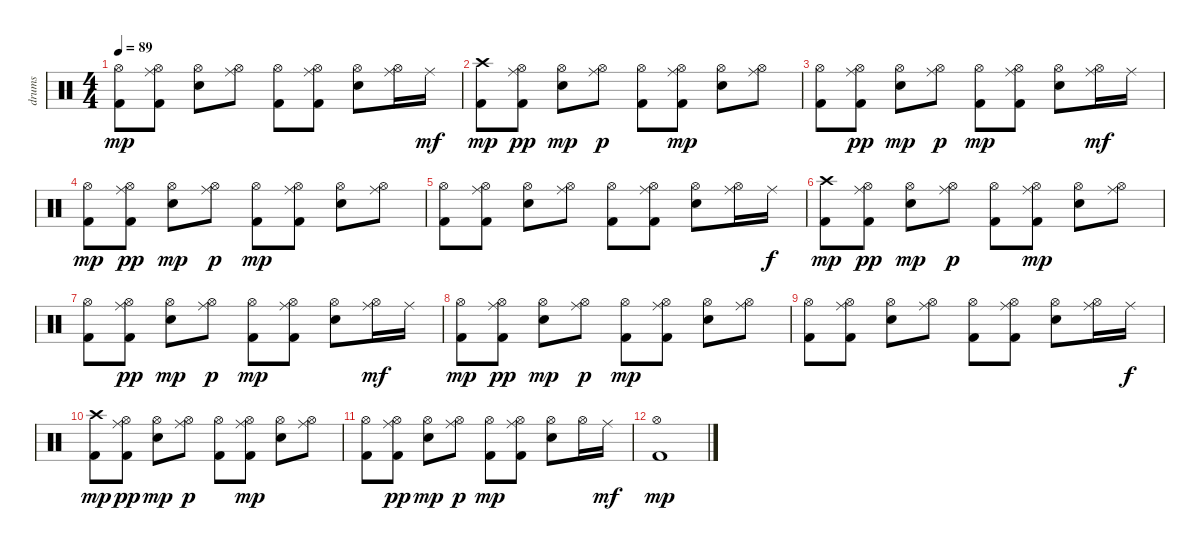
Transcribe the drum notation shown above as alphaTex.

\track ("drums" "drums") {instrument percussion}
\staff {score}
\articulation defaults
\ts (4 4)
\tempo 89
\clef neutral
\ks c
("Kick (hit) 2" "Hi-Hat (open)").8{dy mp} ("Kick (hit) 2" "Hi-Hat (open)" "Ride (middle)").8 ("Snare (hit) 2" "Hi-Hat (open)").8 ("Hi-Hat (open)" "Ride (middle)").8 ("Kick (hit) 2" "Hi-Hat (open)").8 ("Kick (hit) 2" "Hi-Hat (open)" "Ride (middle)").8 ("Snare (hit) 2" "Hi-Hat (open)").8 ("Hi-Hat (open)" "Ride (middle)").16 "Ride (middle)".16{dy mf} |
("Kick (hit) 2" "Crash high (hit)").8{dy mp} ("Kick (hit) 2" "Hi-Hat (open)" "Ride (middle)").8{dy pp} ("Snare (hit) 2" "Hi-Hat (open)").8{dy mp} ("Hi-Hat (open)" "Ride (middle)").8{dy p} ("Kick (hit) 2" "Hi-Hat (open)").8 ("Kick (hit) 2" "Hi-Hat (open)" "Ride (middle)").8{dy mp} ("Snare (hit) 2" "Hi-Hat (open)").8 ("Hi-Hat (open)" "Ride (middle)").8 |
("Kick (hit) 2" "Hi-Hat (open)").8 ("Kick (hit) 2" "Hi-Hat (open)" "Ride (middle)").8{dy pp} ("Snare (hit) 2" "Hi-Hat (open)").8{dy mp} ("Hi-Hat (open)" "Ride (middle)").8{dy p} ("Kick (hit) 2" "Hi-Hat (open)").8{dy mp} ("Kick (hit) 2" "Hi-Hat (open)" "Ride (middle)").8 ("Snare (hit) 2" "Hi-Hat (open)").8 ("Hi-Hat (open)" "Ride (middle)").16{dy mf} "Ride (middle)".16 |
("Kick (hit) 2" "Hi-Hat (open)").8{dy mp} ("Kick (hit) 2" "Hi-Hat (open)" "Ride (middle)").8{dy pp} ("Snare (hit) 2" "Hi-Hat (open)").8{dy mp} ("Hi-Hat (open)" "Ride (middle)").8{dy p} ("Kick (hit) 2" "Hi-Hat (open)").8{dy mp} ("Kick (hit) 2" "Hi-Hat (open)" "Ride (middle)").8 ("Snare (hit) 2" "Hi-Hat (open)").8 ("Hi-Hat (open)" "Ride (middle)").8 |
("Kick (hit) 2" "Hi-Hat (open)").8 ("Kick (hit) 2" "Hi-Hat (open)" "Ride (middle)").8 ("Snare (hit) 2" "Hi-Hat (open)").8 ("Hi-Hat (open)" "Ride (middle)").8 ("Kick (hit) 2" "Hi-Hat (open)").8 ("Kick (hit) 2" "Hi-Hat (open)" "Ride (middle)").8 ("Snare (hit) 2" "Hi-Hat (open)").8 ("Hi-Hat (open)" "Ride (middle)").16 "Ride (middle)".16{dy f} |
("Kick (hit) 2" "Crash high (hit)").8{dy mp} ("Kick (hit) 2" "Hi-Hat (open)" "Ride (middle)").8{dy pp} ("Snare (hit) 2" "Hi-Hat (open)").8{dy mp} ("Hi-Hat (open)" "Ride (middle)").8{dy p} ("Kick (hit) 2" "Hi-Hat (open)").8 ("Kick (hit) 2" "Hi-Hat (open)" "Ride (middle)").8{dy mp} ("Snare (hit) 2" "Hi-Hat (open)").8 ("Hi-Hat (open)" "Ride (middle)").8 |
("Kick (hit) 2" "Hi-Hat (open)").8 ("Kick (hit) 2" "Hi-Hat (open)" "Ride (middle)").8{dy pp} ("Snare (hit) 2" "Hi-Hat (open)").8{dy mp} ("Hi-Hat (open)" "Ride (middle)").8{dy p} ("Kick (hit) 2" "Hi-Hat (open)").8{dy mp} ("Kick (hit) 2" "Hi-Hat (open)" "Ride (middle)").8 ("Snare (hit) 2" "Hi-Hat (open)").8 ("Hi-Hat (open)" "Ride (middle)").16{dy mf} "Ride (middle)".16 |
("Kick (hit) 2" "Hi-Hat (open)").8{dy mp} ("Kick (hit) 2" "Hi-Hat (open)" "Ride (middle)").8{dy pp} ("Snare (hit) 2" "Hi-Hat (open)").8{dy mp} ("Hi-Hat (open)" "Ride (middle)").8{dy p} ("Kick (hit) 2" "Hi-Hat (open)").8{dy mp} ("Kick (hit) 2" "Hi-Hat (open)" "Ride (middle)").8 ("Snare (hit) 2" "Hi-Hat (open)").8 ("Hi-Hat (open)" "Ride (middle)").8 |
("Kick (hit) 2" "Hi-Hat (open)").8 ("Kick (hit) 2" "Hi-Hat (open)" "Ride (middle)").8 ("Snare (hit) 2" "Hi-Hat (open)").8 ("Hi-Hat (open)" "Ride (middle)").8 ("Kick (hit) 2" "Hi-Hat (open)").8 ("Kick (hit) 2" "Hi-Hat (open)" "Ride (middle)").8 ("Snare (hit) 2" "Hi-Hat (open)").8 ("Hi-Hat (open)" "Ride (middle)").16 "Ride (middle)".16{dy f} |
("Kick (hit) 2" "Crash high (hit)").8{dy mp} ("Kick (hit) 2" "Hi-Hat (open)" "Ride (middle)").8{dy pp} ("Snare (hit) 2" "Hi-Hat (open)").8{dy mp} ("Hi-Hat (open)" "Ride (middle)").8{dy p} ("Kick (hit) 2" "Hi-Hat (open)").8 ("Kick (hit) 2" "Hi-Hat (open)" "Ride (middle)").8{dy mp} ("Snare (hit) 2" "Hi-Hat (open)").8 ("Hi-Hat (open)" "Ride (middle)").8 |
("Kick (hit) 2" "Hi-Hat (open)").8 ("Kick (hit) 2" "Hi-Hat (open)" "Ride (middle)").8{dy pp} ("Snare (hit) 2" "Hi-Hat (open)").8{dy mp} ("Hi-Hat (open)" "Ride (middle)").8{dy p} ("Kick (hit) 2" "Hi-Hat (open)").8{dy mp} ("Kick (hit) 2" "Hi-Hat (open)" "Ride (middle)").8 ("Snare (hit) 2" "Hi-Hat (open)").8 "Hi-Hat (open)".16 "Ride (middle)".16{dy mf} |
("Kick (hit) 2" "Hi-Hat (open)").1{dy mp}
